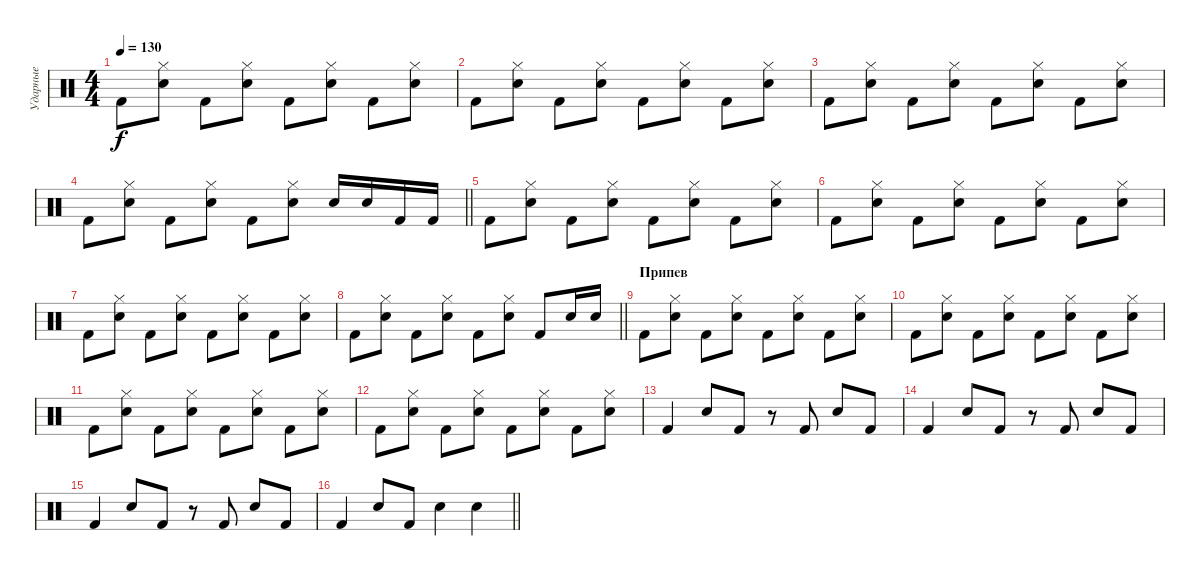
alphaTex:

\track ("Ударные" "Ударные") {instrument percussion}
\staff {score}
\articulation defaults
\ts (4 4)
\tempo 130
\clef neutral
\ks c "Kick (hit) 2".8{dy f}
("Hi-Hat (closed)" "Snare (hit) 2").8 "Kick (hit) 2".8 ("Hi-Hat (closed)" "Snare (hit) 2").8 "Kick (hit) 2".8 ("Hi-Hat (closed)" "Snare (hit) 2").8 "Kick (hit) 2".8 ("Hi-Hat (closed)" "Snare (hit) 2").8 |
"Kick (hit) 2".8 ("Hi-Hat (closed)" "Snare (hit) 2").8 "Kick (hit) 2".8 ("Hi-Hat (closed)" "Snare (hit) 2").8 "Kick (hit) 2".8 ("Hi-Hat (closed)" "Snare (hit) 2").8 "Kick (hit) 2".8 ("Hi-Hat (closed)" "Snare (hit) 2").8 |
"Kick (hit) 2".8 ("Hi-Hat (closed)" "Snare (hit) 2").8 "Kick (hit) 2".8 ("Hi-Hat (closed)" "Snare (hit) 2").8 "Kick (hit) 2".8 ("Hi-Hat (closed)" "Snare (hit) 2").8 "Kick (hit) 2".8 ("Hi-Hat (closed)" "Snare (hit) 2").8 |
\barLineRight lightlight "Kick (hit) 2".8
("Hi-Hat (closed)" "Snare (hit) 2").8 "Kick (hit) 2".8 ("Hi-Hat (closed)" "Snare (hit) 2").8 "Kick (hit) 2".8 ("Hi-Hat (closed)" "Snare (hit) 2").8 "Snare (hit) 2".16 "Snare (hit) 2".16 "Kick (hit) 2".16 "Kick (hit) 2".16 |
"Kick (hit) 2".8 ("Hi-Hat (closed)" "Snare (hit) 2").8 "Kick (hit) 2".8 ("Hi-Hat (closed)" "Snare (hit) 2").8 "Kick (hit) 2".8 ("Hi-Hat (closed)" "Snare (hit) 2").8 "Kick (hit) 2".8 ("Hi-Hat (closed)" "Snare (hit) 2").8 |
"Kick (hit) 2".8 ("Hi-Hat (closed)" "Snare (hit) 2").8 "Kick (hit) 2".8 ("Hi-Hat (closed)" "Snare (hit) 2").8 "Kick (hit) 2".8 ("Hi-Hat (closed)" "Snare (hit) 2").8 "Kick (hit) 2".8 ("Hi-Hat (closed)" "Snare (hit) 2").8 |
"Kick (hit) 2".8 ("Hi-Hat (closed)" "Snare (hit) 2").8 "Kick (hit) 2".8 ("Hi-Hat (closed)" "Snare (hit) 2").8 "Kick (hit) 2".8 ("Hi-Hat (closed)" "Snare (hit) 2").8 "Kick (hit) 2".8 ("Hi-Hat (closed)" "Snare (hit) 2").8 |
\barLineRight lightlight "Kick (hit) 2".8
("Hi-Hat (closed)" "Snare (hit) 2").8 "Kick (hit) 2".8 ("Hi-Hat (closed)" "Snare (hit) 2").8 "Kick (hit) 2".8 ("Hi-Hat (closed)" "Snare (hit) 2").8 "Kick (hit) 2".8 "Snare (hit) 2".16 "Snare (hit) 2".16 |
\section ("" "Припев")
"Kick (hit) 2".8 ("Hi-Hat (closed)" "Snare (hit) 2").8 "Kick (hit) 2".8 ("Hi-Hat (closed)" "Snare (hit) 2").8 "Kick (hit) 2".8 ("Hi-Hat (closed)" "Snare (hit) 2").8 "Kick (hit) 2".8 ("Hi-Hat (closed)" "Snare (hit) 2").8 |
"Kick (hit) 2".8 ("Hi-Hat (closed)" "Snare (hit) 2").8 "Kick (hit) 2".8 ("Hi-Hat (closed)" "Snare (hit) 2").8 "Kick (hit) 2".8 ("Hi-Hat (closed)" "Snare (hit) 2").8 "Kick (hit) 2".8 ("Hi-Hat (closed)" "Snare (hit) 2").8 |
"Kick (hit) 2".8 ("Hi-Hat (closed)" "Snare (hit) 2").8 "Kick (hit) 2".8 ("Hi-Hat (closed)" "Snare (hit) 2").8 "Kick (hit) 2".8 ("Hi-Hat (closed)" "Snare (hit) 2").8 "Kick (hit) 2".8 ("Hi-Hat (closed)" "Snare (hit) 2").8 |
"Kick (hit) 2".8 ("Hi-Hat (closed)" "Snare (hit) 2").8 "Kick (hit) 2".8 ("Hi-Hat (closed)" "Snare (hit) 2").8 "Kick (hit) 2".8 ("Hi-Hat (closed)" "Snare (hit) 2").8 "Kick (hit) 2".8 ("Hi-Hat (closed)" "Snare (hit) 2").8 |
"Kick (hit) 2".4 "Snare (hit) 2".8 "Kick (hit) 2".8 r.8 "Kick (hit) 2".8 "Snare (hit) 2".8 "Kick (hit) 2".8 |
"Kick (hit) 2".4 "Snare (hit) 2".8 "Kick (hit) 2".8 r.8 "Kick (hit) 2".8 "Snare (hit) 2".8 "Kick (hit) 2".8 |
"Kick (hit) 2".4 "Snare (hit) 2".8 "Kick (hit) 2".8 r.8 "Kick (hit) 2".8 "Snare (hit) 2".8 "Kick (hit) 2".8 |
\barLineRight lightlight "Kick (hit) 2".4 "Snare (hit) 2".8 "Kick (hit) 2".8 "Snare (hit) 2".4 "Snare (hit) 2".4
